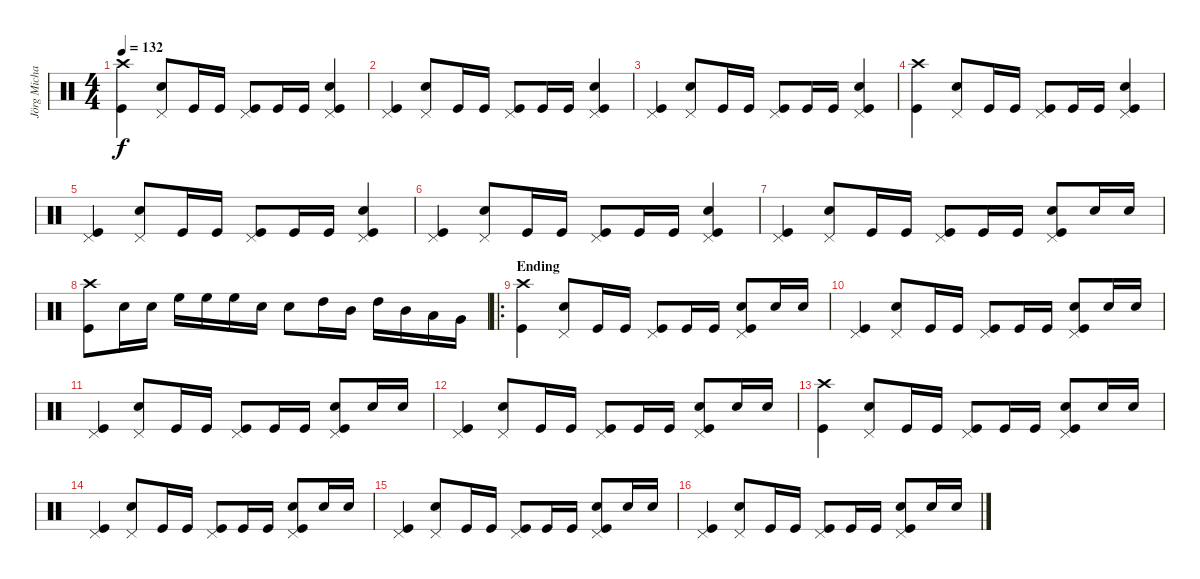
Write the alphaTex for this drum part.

\track ("Jörg Michael (Drums)" "Jörg Micha") {instrument percussion}
\staff {score}
\articulation defaults
\ts (4 4)
\tempo 132
\clef neutral
\ks c
("Crash high (hit)" "Kick (hit)").4{dy f} ("Pedal Hi-Hat (hit)" "Snare (hit) 2").8 "Kick (hit)".16 "Kick (hit)".16 ("Pedal Hi-Hat (hit)" "Kick (hit)").8 "Kick (hit)".16 "Kick (hit)".16 ("Pedal Hi-Hat (hit)" "Kick (hit)" "Snare (hit) 2").4 |
("Pedal Hi-Hat (hit)" "Kick (hit)").4 ("Pedal Hi-Hat (hit)" "Snare (hit) 2").8 "Kick (hit)".16 "Kick (hit)".16 ("Pedal Hi-Hat (hit)" "Kick (hit)").8 "Kick (hit)".16 "Kick (hit)".16 ("Pedal Hi-Hat (hit)" "Kick (hit)" "Snare (hit) 2").4 |
("Pedal Hi-Hat (hit)" "Kick (hit)").4 ("Pedal Hi-Hat (hit)" "Snare (hit) 2").8 "Kick (hit)".16 "Kick (hit)".16 ("Pedal Hi-Hat (hit)" "Kick (hit)").8 "Kick (hit)".16 "Kick (hit)".16 ("Pedal Hi-Hat (hit)" "Kick (hit)" "Snare (hit) 2").4 |
("Crash high (hit)" "Kick (hit)").4 ("Pedal Hi-Hat (hit)" "Snare (hit) 2").8 "Kick (hit)".16 "Kick (hit)".16 ("Pedal Hi-Hat (hit)" "Kick (hit)").8 "Kick (hit)".16 "Kick (hit)".16 ("Pedal Hi-Hat (hit)" "Kick (hit)" "Snare (hit) 2").4 |
("Pedal Hi-Hat (hit)" "Kick (hit)").4 ("Pedal Hi-Hat (hit)" "Snare (hit) 2").8 "Kick (hit)".16 "Kick (hit)".16 ("Pedal Hi-Hat (hit)" "Kick (hit)").8 "Kick (hit)".16 "Kick (hit)".16 ("Pedal Hi-Hat (hit)" "Kick (hit)" "Snare (hit) 2").4 |
("Pedal Hi-Hat (hit)" "Kick (hit)").4 ("Pedal Hi-Hat (hit)" "Snare (hit) 2").8 "Kick (hit)".16 "Kick (hit)".16 ("Pedal Hi-Hat (hit)" "Kick (hit)").8 "Kick (hit)".16 "Kick (hit)".16 ("Pedal Hi-Hat (hit)" "Kick (hit)" "Snare (hit) 2").4 |
("Pedal Hi-Hat (hit)" "Kick (hit)").4 ("Pedal Hi-Hat (hit)" "Snare (hit) 2").8 "Kick (hit)".16 "Kick (hit)".16 ("Pedal Hi-Hat (hit)" "Kick (hit)").8 "Kick (hit)".16 "Kick (hit)".16 ("Pedal Hi-Hat (hit)" "Kick (hit)" "Snare (hit) 2").8 "Snare (hit) 2".16 "Snare (hit) 2".16 |
("Crash high (hit)" "Kick (hit)").8 "Snare (hit) 2".16 "Snare (hit) 2".16 "High Floor Tom (hit)".16 "High Floor Tom (hit)".16 "High Floor Tom (hit)".16 "Snare (hit) 2".16 "Snare (hit) 2".8 "High Tom (hit)".16 "Mid Tom (hit)".16 "High Tom (hit)".16 "Mid Tom (hit)".16 "Low Tom (hit)".16 "Very Low Tom (hit)".16 |
\ro
\section ("" "Ending")
("Crash high (hit)" "Kick (hit)").4 ("Pedal Hi-Hat (hit)" "Snare (hit) 2").8 "Kick (hit)".16 "Kick (hit)".16 ("Pedal Hi-Hat (hit)" "Kick (hit)").8 "Kick (hit)".16 "Kick (hit)".16 ("Pedal Hi-Hat (hit)" "Kick (hit)" "Snare (hit) 2").8 "Snare (hit) 2".16 "Snare (hit) 2".16 |
("Pedal Hi-Hat (hit)" "Kick (hit)").4 ("Pedal Hi-Hat (hit)" "Snare (hit) 2").8 "Kick (hit)".16 "Kick (hit)".16 ("Pedal Hi-Hat (hit)" "Kick (hit)").8 "Kick (hit)".16 "Kick (hit)".16 ("Pedal Hi-Hat (hit)" "Kick (hit)" "Snare (hit) 2").8 "Snare (hit) 2".16 "Snare (hit) 2".16 |
("Pedal Hi-Hat (hit)" "Kick (hit)").4 ("Pedal Hi-Hat (hit)" "Snare (hit) 2").8 "Kick (hit)".16 "Kick (hit)".16 ("Pedal Hi-Hat (hit)" "Kick (hit)").8 "Kick (hit)".16 "Kick (hit)".16 ("Pedal Hi-Hat (hit)" "Kick (hit)" "Snare (hit) 2").8 "Snare (hit) 2".16 "Snare (hit) 2".16 |
("Pedal Hi-Hat (hit)" "Kick (hit)").4 ("Pedal Hi-Hat (hit)" "Snare (hit) 2").8 "Kick (hit)".16 "Kick (hit)".16 ("Pedal Hi-Hat (hit)" "Kick (hit)").8 "Kick (hit)".16 "Kick (hit)".16 ("Pedal Hi-Hat (hit)" "Kick (hit)" "Snare (hit) 2").8 "Snare (hit) 2".16 "Snare (hit) 2".16 |
("Crash high (hit)" "Kick (hit)").4 ("Pedal Hi-Hat (hit)" "Snare (hit) 2").8 "Kick (hit)".16 "Kick (hit)".16 ("Pedal Hi-Hat (hit)" "Kick (hit)").8 "Kick (hit)".16 "Kick (hit)".16 ("Pedal Hi-Hat (hit)" "Kick (hit)" "Snare (hit) 2").8 "Snare (hit) 2".16 "Snare (hit) 2".16 |
("Pedal Hi-Hat (hit)" "Kick (hit)").4 ("Pedal Hi-Hat (hit)" "Snare (hit) 2").8 "Kick (hit)".16 "Kick (hit)".16 ("Pedal Hi-Hat (hit)" "Kick (hit)").8 "Kick (hit)".16 "Kick (hit)".16 ("Pedal Hi-Hat (hit)" "Kick (hit)" "Snare (hit) 2").8 "Snare (hit) 2".16 "Snare (hit) 2".16 |
("Pedal Hi-Hat (hit)" "Kick (hit)").4 ("Pedal Hi-Hat (hit)" "Snare (hit) 2").8 "Kick (hit)".16 "Kick (hit)".16 ("Pedal Hi-Hat (hit)" "Kick (hit)").8 "Kick (hit)".16 "Kick (hit)".16 ("Pedal Hi-Hat (hit)" "Kick (hit)" "Snare (hit) 2").8 "Snare (hit) 2".16 "Snare (hit) 2".16 |
("Pedal Hi-Hat (hit)" "Kick (hit)").4 ("Pedal Hi-Hat (hit)" "Snare (hit) 2").8 "Kick (hit)".16 "Kick (hit)".16 ("Pedal Hi-Hat (hit)" "Kick (hit)").8 "Kick (hit)".16 "Kick (hit)".16 ("Pedal Hi-Hat (hit)" "Kick (hit)" "Snare (hit) 2").8 "Snare (hit) 2".16 "Snare (hit) 2".16
